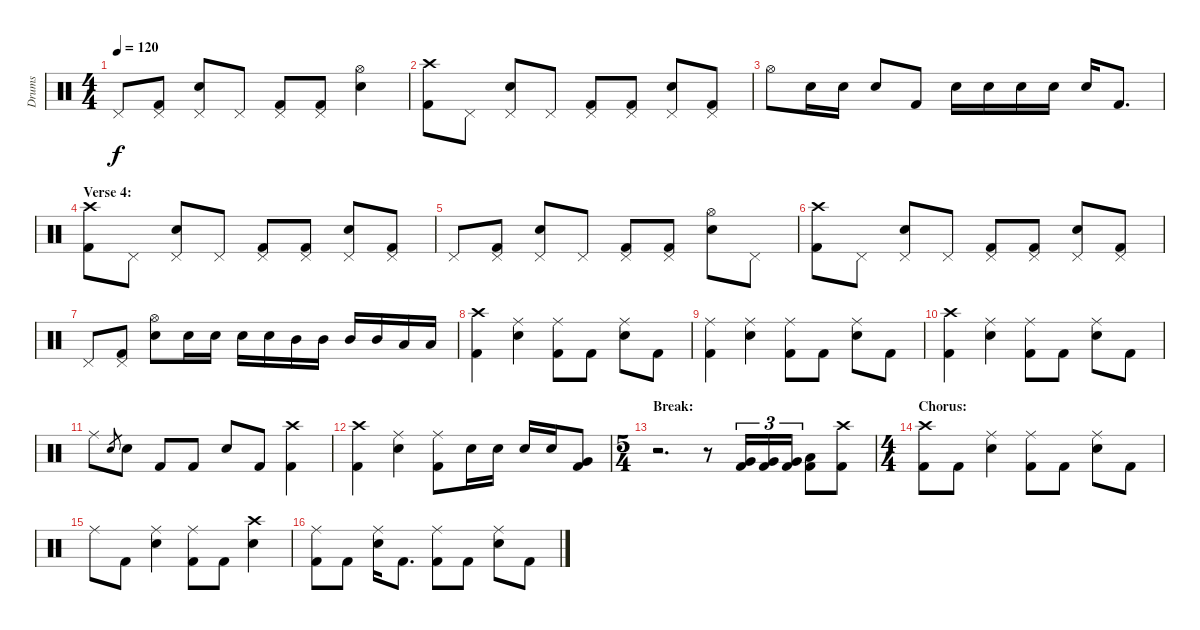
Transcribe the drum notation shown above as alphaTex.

\track ("Drums" "Drums") {instrument percussion}
\staff {score}
\articulation defaults
\ts (4 4)
\tempo 120
\clef neutral
\ks c "Pedal Hi-Hat (hit)".8{dy f}
("Pedal Hi-Hat (hit)" "Kick (hit) 2").8 ("Pedal Hi-Hat (hit)" "Electric Snare (hit)").8 "Pedal Hi-Hat (hit)".8 ("Pedal Hi-Hat (hit)" "Kick (hit) 2").8 ("Pedal Hi-Hat (hit)" "Kick (hit) 2").8 ("Hi-Hat (open)" "Electric Snare (hit)").4 |
("Crash high (hit)" "Kick (hit) 2").8 "Pedal Hi-Hat (hit)".8 ("Pedal Hi-Hat (hit)" "Electric Snare (hit)").8 "Pedal Hi-Hat (hit)".8 ("Pedal Hi-Hat (hit)" "Kick (hit) 2").8 ("Pedal Hi-Hat (hit)" "Kick (hit) 2").8 ("Pedal Hi-Hat (hit)" "Electric Snare (hit)").8 ("Pedal Hi-Hat (hit)" "Kick (hit) 2").8 |
"Hi-Hat (open)".8 "Electric Snare (hit)".16 "Electric Snare (hit)".16 "Electric Snare (hit)".8 "Kick (hit) 2".8 "Electric Snare (hit)".16 "Electric Snare (hit)".16 "Electric Snare (hit)".16 "Electric Snare (hit)".16 "Electric Snare (hit)".16 "Kick (hit) 2".8{d} |
\section ("" "Verse 4:")
("Crash high (hit)" "Kick (hit) 2").8 "Pedal Hi-Hat (hit)".8 ("Pedal Hi-Hat (hit)" "Electric Snare (hit)").8 "Pedal Hi-Hat (hit)".8 ("Pedal Hi-Hat (hit)" "Kick (hit) 2").8 ("Pedal Hi-Hat (hit)" "Kick (hit) 2").8 ("Pedal Hi-Hat (hit)" "Electric Snare (hit)").8 ("Pedal Hi-Hat (hit)" "Kick (hit) 2").8 |
"Pedal Hi-Hat (hit)".8 ("Pedal Hi-Hat (hit)" "Kick (hit) 2").8 ("Pedal Hi-Hat (hit)" "Electric Snare (hit)").8 "Pedal Hi-Hat (hit)".8 ("Pedal Hi-Hat (hit)" "Kick (hit) 2").8 ("Pedal Hi-Hat (hit)" "Kick (hit) 2").8 ("Hi-Hat (open)" "Electric Snare (hit)").8 "Pedal Hi-Hat (hit)".8 |
("Crash high (hit)" "Kick (hit) 2").8 "Pedal Hi-Hat (hit)".8 ("Pedal Hi-Hat (hit)" "Electric Snare (hit)").8 "Pedal Hi-Hat (hit)".8 ("Pedal Hi-Hat (hit)" "Kick (hit) 2").8 ("Pedal Hi-Hat (hit)" "Kick (hit) 2").8 ("Pedal Hi-Hat (hit)" "Electric Snare (hit)").8 ("Pedal Hi-Hat (hit)" "Kick (hit) 2").8 |
"Pedal Hi-Hat (hit)".8 ("Pedal Hi-Hat (hit)" "Kick (hit) 2").8 ("Hi-Hat (open)" "Electric Snare (hit)").8 "Electric Snare (hit)".16 "Electric Snare (hit)".16 "Electric Snare (hit)".16 "Electric Snare (hit)".16 "Mid Tom (hit)".16 "Mid Tom (hit)".16 "Mid Tom (hit)".16 "Mid Tom (hit)".16 "Low Tom (hit)".16 "Low Tom (hit)".16 |
("Crash high (hit)" "Kick (hit) 2").4 ("Ride (middle)" "Electric Snare (hit)").4 ("Ride (middle)" "Kick (hit) 2").8 "Kick (hit) 2".8 ("Ride (middle)" "Electric Snare (hit)").8 "Kick (hit) 2".8 |
("Ride (middle)" "Kick (hit) 2").4 ("Ride (middle)" "Electric Snare (hit)").4 ("Ride (middle)" "Kick (hit) 2").8 "Kick (hit) 2".8 ("Ride (middle)" "Electric Snare (hit)").8 "Kick (hit) 2".8 |
("Crash high (hit)" "Kick (hit) 2").4 ("Ride (middle)" "Electric Snare (hit)").4 ("Ride (middle)" "Kick (hit) 2").8 "Kick (hit) 2".8 ("Ride (middle)" "Electric Snare (hit)").8 "Kick (hit) 2".8 |
"Ride (middle)".8 "Electric Snare (hit)".8{gr} "Electric Snare (hit)".8 "Kick (hit) 2".8 "Kick (hit) 2".8 "Electric Snare (hit)".8 "Kick (hit) 2".8 ("Crash high (hit)" "Kick (hit) 2").4 |
("Crash high (hit)" "Kick (hit) 2").4 ("Ride (middle)" "Electric Snare (hit)").4 ("Ride (middle)" "Kick (hit) 2").8 "Electric Snare (hit)".16 "Electric Snare (hit)".16 "Electric Snare (hit)".16 "Electric Snare (hit)".16 ("Very Low Tom (hit)" "Kick (hit) 2").8 |
\ts (5 4)
\section ("" "Break:")
r.2{d} r.8 ("Very Low Tom (hit)" "Kick (hit) 2").16{tu (3 2)} ("Very Low Tom (hit)" "Kick (hit) 2").16{tu (3 2)} ("Very Low Tom (hit)" "Kick (hit) 2").16{tu (3 2)} ("Low Floor Tom (hit)" "Kick (hit) 2").8 ("Crash high (hit)" "Kick (hit) 2").8 |
\ts (4 4)
\section ("" "Chorus:")
("Crash high (hit)" "Kick (hit) 2").8 "Kick (hit) 2".8 ("Ride (middle)" "Electric Snare (hit)").4 ("Ride (middle)" "Kick (hit) 2").8 "Kick (hit) 2".8 ("Ride (middle)" "Electric Snare (hit)").8 "Kick (hit) 2".8 |
"Ride (middle)".8 "Kick (hit) 2".8 ("Ride (middle)" "Electric Snare (hit)").4 ("Ride (middle)" "Kick (hit) 2").8 "Kick (hit) 2".8 ("Crash high (hit)" "Electric Snare (hit)").4 |
("Ride (middle)" "Kick (hit) 2").8 "Kick (hit) 2".8 ("Ride (middle)" "Electric Snare (hit)").16 "Kick (hit) 2".8{d} ("Ride (middle)" "Kick (hit) 2").8 "Kick (hit) 2".8 ("Ride (middle)" "Electric Snare (hit)").8 "Kick (hit) 2".8
